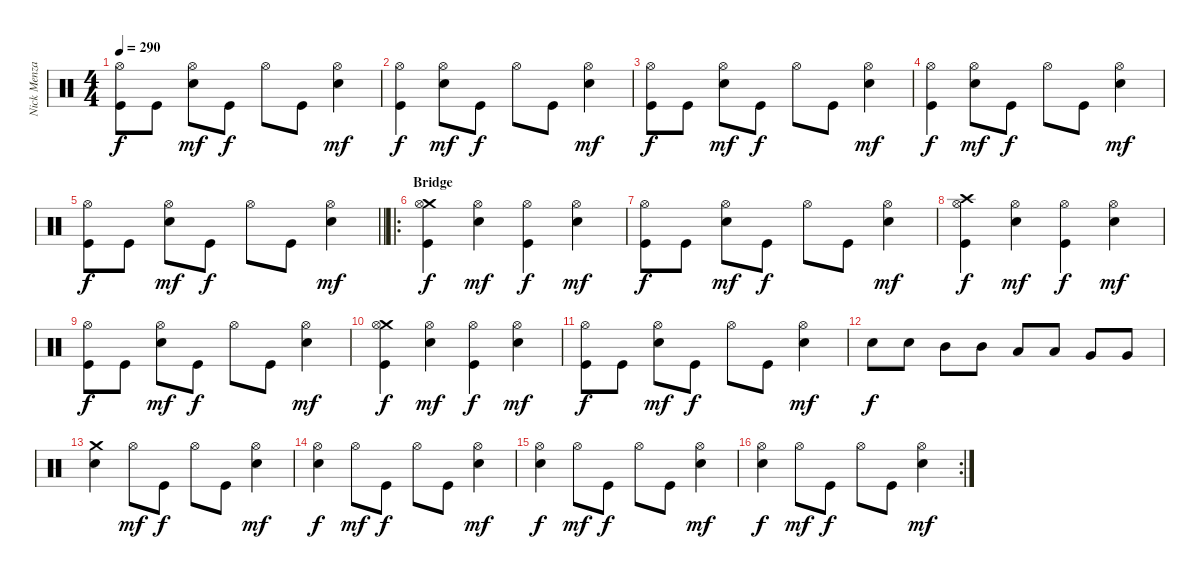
\track ("Nick Menza" "Nick Menza") {instrument percussion}
\staff {score}
\articulation defaults
\ts (4 4)
\tempo 290
\clef neutral
\ks c
("Hi-Hat (open)" "Kick (hit)").8{dy f} "Kick (hit)".8 ("Hi-Hat (open)" "Snare (hit) 2").8{dy mf} "Kick (hit)".8{dy f} "Hi-Hat (open)".8 "Kick (hit)".8 ("Hi-Hat (open)" "Snare (hit) 2").4{dy mf} |
("Hi-Hat (open)" "Kick (hit)").4{dy f} ("Hi-Hat (open)" "Snare (hit) 2").8{dy mf} "Kick (hit)".8{dy f} "Hi-Hat (open)".8 "Kick (hit)".8 ("Hi-Hat (open)" "Snare (hit) 2").4{dy mf} |
("Hi-Hat (open)" "Kick (hit)").8{dy f} "Kick (hit)".8 ("Hi-Hat (open)" "Snare (hit) 2").8{dy mf} "Kick (hit)".8{dy f} "Hi-Hat (open)".8 "Kick (hit)".8 ("Hi-Hat (open)" "Snare (hit) 2").4{dy mf} |
("Hi-Hat (open)" "Kick (hit)").4{dy f} ("Hi-Hat (open)" "Snare (hit) 2").8{dy mf} "Kick (hit)".8{dy f} "Hi-Hat (open)".8 "Kick (hit)".8 ("Hi-Hat (open)" "Snare (hit) 2").4{dy mf} |
\barLineRight lightlight
("Hi-Hat (open)" "Kick (hit)").8{dy f} "Kick (hit)".8 ("Hi-Hat (open)" "Snare (hit) 2").8{dy mf} "Kick (hit)".8{dy f} "Hi-Hat (open)".8 "Kick (hit)".8 ("Hi-Hat (open)" "Snare (hit) 2").4{dy mf} |
\ro
\section ("" "Bridge")
("Crash medium (hit)" "Hi-Hat (open)" "Kick (hit)").4{dy f} ("Hi-Hat (open)" "Snare (hit) 2").4{dy mf} ("Hi-Hat (open)" "Kick (hit)").4{dy f} ("Hi-Hat (open)" "Snare (hit) 2").4{dy mf} |
("Hi-Hat (open)" "Kick (hit)").8{dy f} "Kick (hit)".8 ("Hi-Hat (open)" "Snare (hit) 2").8{dy mf} "Kick (hit)".8{dy f} "Hi-Hat (open)".8 "Kick (hit)".8 ("Hi-Hat (open)" "Snare (hit) 2").4{dy mf} |
("Crash high (hit)" "Hi-Hat (open)" "Kick (hit)").4{dy f} ("Hi-Hat (open)" "Snare (hit) 2").4{dy mf} ("Hi-Hat (open)" "Kick (hit)").4{dy f} ("Hi-Hat (open)" "Snare (hit) 2").4{dy mf} |
("Hi-Hat (open)" "Kick (hit)").8{dy f} "Kick (hit)".8 ("Hi-Hat (open)" "Snare (hit) 2").8{dy mf} "Kick (hit)".8{dy f} "Hi-Hat (open)".8 "Kick (hit)".8 ("Hi-Hat (open)" "Snare (hit) 2").4{dy mf} |
("Crash medium (hit)" "Hi-Hat (open)" "Kick (hit)").4{dy f} ("Hi-Hat (open)" "Snare (hit) 2").4{dy mf} ("Hi-Hat (open)" "Kick (hit)").4{dy f} ("Hi-Hat (open)" "Snare (hit) 2").4{dy mf} |
("Hi-Hat (open)" "Kick (hit)").8{dy f} "Kick (hit)".8 ("Hi-Hat (open)" "Snare (hit) 2").8{dy mf} "Kick (hit)".8{dy f} "Hi-Hat (open)".8 "Kick (hit)".8 ("Hi-Hat (open)" "Snare (hit) 2").4{dy mf} |
"Snare (hit) 2".8{dy f} "Snare (hit) 2".8 "Mid Tom (hit)".8 "Mid Tom (hit)".8 "Low Tom (hit)".8 "Low Tom (hit)".8 "Very Low Tom (hit)".8 "Very Low Tom (hit)".8 |
("Crash medium (hit)" "Snare (hit) 2").4 "Hi-Hat (open)".8{dy mf} "Kick (hit)".8{dy f} "Hi-Hat (open)".8 "Kick (hit)".8 ("Hi-Hat (open)" "Snare (hit) 2").4{dy mf} |
("Hi-Hat (open)" "Snare (hit) 2").4{dy f} "Hi-Hat (open)".8{dy mf} "Kick (hit)".8{dy f} "Hi-Hat (open)".8 "Kick (hit)".8 ("Hi-Hat (open)" "Snare (hit) 2").4{dy mf} |
("Hi-Hat (open)" "Snare (hit) 2").4{dy f} "Hi-Hat (open)".8{dy mf} "Kick (hit)".8{dy f} "Hi-Hat (open)".8 "Kick (hit)".8 ("Hi-Hat (open)" "Snare (hit) 2").4{dy mf} |
\rc 2
("Hi-Hat (open)" "Snare (hit) 2").4{dy f} "Hi-Hat (open)".8{dy mf} "Kick (hit)".8{dy f} "Hi-Hat (open)".8 "Kick (hit)".8 ("Hi-Hat (open)" "Snare (hit) 2").4{dy mf}
